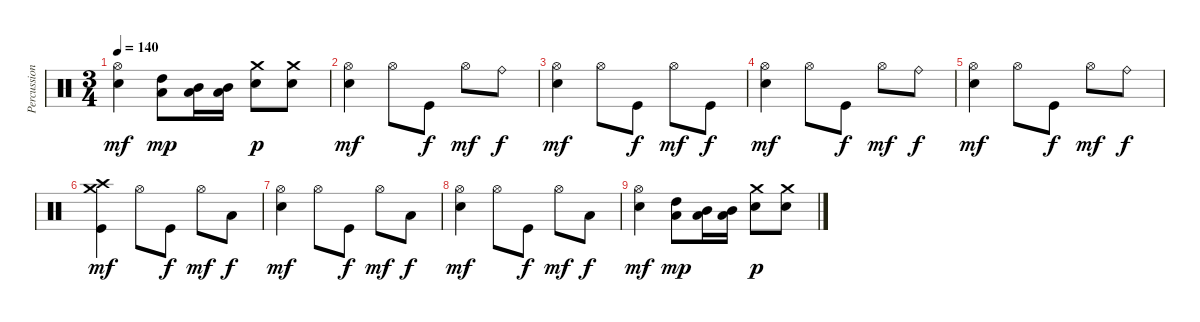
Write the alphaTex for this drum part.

\track ("Percussion" "Percussion") {instrument percussion}
\staff {score}
\articulation defaults
\ts (3 4)
\tempo 140
\clef neutral
\ks c
("Electric Snare (hit)" "Hi-Hat (open)").4{dy mf} ("Low Tom (hit)" "High Tom (hit)").8{dy mp} ("Low Tom (hit)" "Mid Tom (hit)").16 ("Low Tom (hit)" "Mid Tom (hit)").16 ("Electric Snare (hit)" "Crash medium (hit)").8{dy p} ("Electric Snare (hit)" "Crash medium (hit)").8 |
("Electric Snare (hit)" "Hi-Hat (open)").4{dy mf} "Hi-Hat (open)".8 "Kick (hit)".8{dy f} "Hi-Hat (open)".8{dy mf} "Ride (bell)".8{dy f} |
("Electric Snare (hit)" "Hi-Hat (open)").4{dy mf} "Hi-Hat (open)".8 "Kick (hit)".8{dy f} "Hi-Hat (open)".8{dy mf} "Kick (hit)".8{dy f} |
("Electric Snare (hit)" "Hi-Hat (open)").4{dy mf} "Hi-Hat (open)".8 "Kick (hit)".8{dy f} "Hi-Hat (open)".8{dy mf} "Ride (bell)".8{dy f} |
("Electric Snare (hit)" "Hi-Hat (open)").4{dy mf} "Hi-Hat (open)".8 "Kick (hit)".8{dy f} "Hi-Hat (open)".8{dy mf} "Ride (bell)".8{dy f} |
("Kick (hit)" "Crash high (hit)" "Crash medium (hit)").4{dy mf} "Hi-Hat (open)".8 "Kick (hit)".8{dy f} "Hi-Hat (open)".8{dy mf} "Low Floor Tom (hit)".8{dy f} |
("Electric Snare (hit)" "Hi-Hat (open)").4{dy mf} "Hi-Hat (open)".8 "Kick (hit)".8{dy f} "Hi-Hat (open)".8{dy mf} "Low Floor Tom (hit)".8{dy f} |
("Electric Snare (hit)" "Hi-Hat (open)").4{dy mf} "Hi-Hat (open)".8 "Kick (hit)".8{dy f} "Hi-Hat (open)".8{dy mf} "Low Floor Tom (hit)".8{dy f} |
("Electric Snare (hit)" "Hi-Hat (open)").4{dy mf} ("Low Tom (hit)" "High Tom (hit)").8{dy mp} ("Low Tom (hit)" "Mid Tom (hit)").16 ("Low Tom (hit)" "Mid Tom (hit)").16 ("Electric Snare (hit)" "Crash medium (hit)").8{dy p} ("Electric Snare (hit)" "Crash medium (hit)").8
